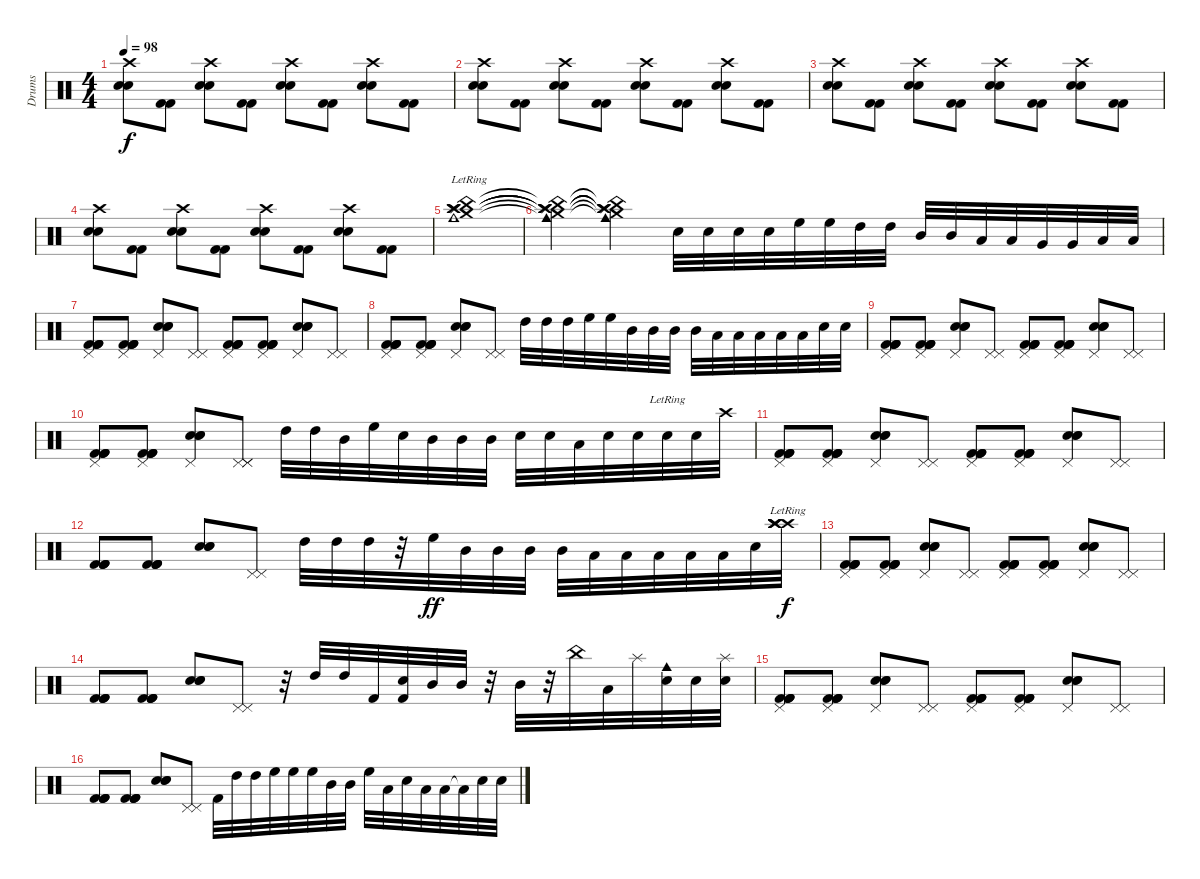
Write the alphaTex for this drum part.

\track ("Drums" "Drums") {instrument percussion}
\staff {score}
\articulation defaults
\ts (4 4)
\tempo 98
\clef neutral
\ks c
("Crash high (hit)" "Electric Snare (hit)" "Electric Snare (hit)").8{dy f} ("Kick (hit) 2" "Kick (hit) 2").8 ("Crash high (hit)" "Electric Snare (hit)" "Electric Snare (hit)").8 ("Kick (hit) 2" "Kick (hit) 2").8 ("Crash high (hit)" "Electric Snare (hit)" "Electric Snare (hit)").8 ("Kick (hit) 2" "Kick (hit) 2").8 ("Crash high (hit)" "Electric Snare (hit)" "Electric Snare (hit)").8 ("Kick (hit) 2" "Kick (hit) 2").8 |
("Crash high (hit)" "Electric Snare (hit)" "Electric Snare (hit)").8 ("Kick (hit) 2" "Kick (hit) 2").8 ("Crash high (hit)" "Electric Snare (hit)" "Electric Snare (hit)").8 ("Kick (hit) 2" "Kick (hit) 2").8 ("Crash high (hit)" "Electric Snare (hit)" "Electric Snare (hit)").8 ("Kick (hit) 2" "Kick (hit) 2").8 ("Crash high (hit)" "Electric Snare (hit)" "Electric Snare (hit)").8 ("Kick (hit) 2" "Kick (hit) 2").8 |
("Crash high (hit)" "Electric Snare (hit)" "Electric Snare (hit)").8 ("Kick (hit) 2" "Kick (hit) 2").8 ("Crash high (hit)" "Electric Snare (hit)" "Electric Snare (hit)").8 ("Kick (hit) 2" "Kick (hit) 2").8 ("Crash high (hit)" "Electric Snare (hit)" "Electric Snare (hit)").8 ("Kick (hit) 2" "Kick (hit) 2").8 ("Crash high (hit)" "Electric Snare (hit)" "Electric Snare (hit)").8 ("Kick (hit) 2" "Kick (hit) 2").8 |
("Crash high (hit)" "Electric Snare (hit)" "Electric Snare (hit)").8 ("Kick (hit) 2" "Kick (hit) 2").8 ("Crash high (hit)" "Electric Snare (hit)" "Electric Snare (hit)").8 ("Kick (hit) 2" "Kick (hit) 2").8 ("Crash high (hit)" "Electric Snare (hit)" "Electric Snare (hit)").8 ("Kick (hit) 2" "Kick (hit) 2").8 ("Crash high (hit)" "Electric Snare (hit)" "Electric Snare (hit)").8 ("Kick (hit) 2" "Kick (hit) 2").8 |
("Cowbell medium (hit)"{lr} "Crash high (hit)"{lr} "Crash high (hit)"{lr} "Crash medium (hit)"{lr} "China (hit)"{lr} "Splash (hit)"{lr}).1 |
("Cowbell medium (hit)"{t} "Crash high (hit)"{t} "Crash high (hit)"{t} "Crash medium (hit)"{t} "China (hit)"{t} "Splash (hit)"{t}).4 ("Cowbell medium (hit)"{t} "Crash high (hit)"{t} "Crash high (hit)"{t} "Crash medium (hit)"{t} "China (hit)"{t} "Splash (hit)"{t}).4 "Electric Snare (hit)".32 "Electric Snare (hit)".32 "Electric Snare (hit)".32 "Electric Snare (hit)".32 "High Floor Tom (hit)".32 "High Floor Tom (hit)".32 "High Tom (hit)".32 "High Tom (hit)".32 "Mid Tom (hit)".32 "Mid Tom (hit)".32 "Low Tom (hit)".32 "Low Tom (hit)".32 "Very Low Tom (hit)".32 "Very Low Tom (hit)".32 "Low Floor Tom (hit)".32 "Low Floor Tom (hit)".32 |
("Pedal Hi-Hat (hit)" "Kick (hit) 2" "Kick (hit) 2" "Kick (hit) 2" "Kick (hit) 2").8 ("Pedal Hi-Hat (hit)" "Kick (hit) 2" "Kick (hit) 2" "Kick (hit) 2" "Kick (hit) 2").8 ("Pedal Hi-Hat (hit)" "Electric Snare (hit)" "Electric Snare (hit)" "Electric Snare (hit)").8 ("Pedal Hi-Hat (hit)" "Pedal Hi-Hat (hit)").8 ("Pedal Hi-Hat (hit)" "Kick (hit) 2" "Kick (hit) 2" "Kick (hit) 2" "Kick (hit) 2").8 ("Pedal Hi-Hat (hit)" "Kick (hit) 2" "Kick (hit) 2" "Kick (hit) 2" "Kick (hit) 2").8 ("Pedal Hi-Hat (hit)" "Electric Snare (hit)" "Electric Snare (hit)" "Electric Snare (hit)").8 ("Pedal Hi-Hat (hit)" "Pedal Hi-Hat (hit)").8 |
("Pedal Hi-Hat (hit)" "Kick (hit) 2" "Kick (hit) 2" "Kick (hit) 2" "Kick (hit) 2").8 ("Pedal Hi-Hat (hit)" "Kick (hit) 2" "Kick (hit) 2" "Kick (hit) 2" "Kick (hit) 2").8 ("Pedal Hi-Hat (hit)" "Electric Snare (hit)" "Electric Snare (hit)" "Electric Snare (hit)").8 ("Pedal Hi-Hat (hit)" "Pedal Hi-Hat (hit)").8 "High Tom (hit)".32 "High Tom (hit)".32 "High Tom (hit)".32 "High Floor Tom (hit)".32 "High Floor Tom (hit)".32 "Mid Tom (hit)".32 "Mid Tom (hit)".32 "Mid Tom (hit)".32 "Mid Tom (hit)".32 "Low Tom (hit)".32 "Low Tom (hit)".32 "Low Tom (hit)".32 "Low Floor Tom (hit)".32 "Low Floor Tom (hit)".32 "Electric Snare (hit)".32 "Electric Snare (hit)".32 |
("Pedal Hi-Hat (hit)" "Kick (hit) 2" "Kick (hit) 2" "Kick (hit) 2" "Kick (hit) 2").8 ("Pedal Hi-Hat (hit)" "Kick (hit) 2" "Kick (hit) 2" "Kick (hit) 2" "Kick (hit) 2").8 ("Pedal Hi-Hat (hit)" "Electric Snare (hit)" "Electric Snare (hit)" "Electric Snare (hit)").8 ("Pedal Hi-Hat (hit)" "Pedal Hi-Hat (hit)").8 ("Pedal Hi-Hat (hit)" "Kick (hit) 2" "Kick (hit) 2" "Kick (hit) 2" "Kick (hit) 2").8 ("Pedal Hi-Hat (hit)" "Kick (hit) 2" "Kick (hit) 2" "Kick (hit) 2" "Kick (hit) 2").8 ("Pedal Hi-Hat (hit)" "Electric Snare (hit)" "Electric Snare (hit)" "Electric Snare (hit)").8 ("Pedal Hi-Hat (hit)" "Pedal Hi-Hat (hit)").8 |
("Pedal Hi-Hat (hit)" "Kick (hit) 2" "Kick (hit) 2" "Kick (hit) 2" "Kick (hit) 2").8 ("Pedal Hi-Hat (hit)" "Kick (hit) 2" "Kick (hit) 2" "Kick (hit) 2" "Kick (hit) 2").8 ("Pedal Hi-Hat (hit)" "Electric Snare (hit)" "Electric Snare (hit)" "Electric Snare (hit)").8 ("Pedal Hi-Hat (hit)" "Pedal Hi-Hat (hit)" "Pedal Hi-Hat (hit)").8 "High Tom (hit)".32 "High Tom (hit)".32 "Mid Tom (hit)".32 "High Floor Tom (hit)".32 "Snare (hit) 2".32 "Mid Tom (hit)".32 "Mid Tom (hit)".32 "Mid Tom (hit)".32 "Snare (hit) 2".32 "Snare (hit) 2".32 "Low Tom (hit)".32 "Snare (hit) 2".32 "Electric Snare (hit)".32 "Snare (hit) 2"{lr}.32 "Snare (hit) 2".32 "Crash high (hit)".32 |
("Pedal Hi-Hat (hit)" "Kick (hit) 2" "Kick (hit) 2" "Kick (hit) 2" "Kick (hit) 2").8 ("Pedal Hi-Hat (hit)" "Kick (hit) 2" "Kick (hit) 2" "Kick (hit) 2" "Kick (hit) 2").8 ("Pedal Hi-Hat (hit)" "Electric Snare (hit)" "Electric Snare (hit)" "Electric Snare (hit)").8 ("Pedal Hi-Hat (hit)" "Pedal Hi-Hat (hit)").8 ("Pedal Hi-Hat (hit)" "Kick (hit) 2" "Kick (hit) 2" "Kick (hit) 2" "Kick (hit) 2").8 ("Pedal Hi-Hat (hit)" "Kick (hit) 2" "Kick (hit) 2" "Kick (hit) 2" "Kick (hit) 2").8 ("Pedal Hi-Hat (hit)" "Electric Snare (hit)" "Electric Snare (hit)" "Electric Snare (hit)").8 ("Pedal Hi-Hat (hit)" "Pedal Hi-Hat (hit)").8 |
("Kick (hit) 2" "Kick (hit) 2" "Kick (hit) 2" "Kick (hit) 2").8 ("Kick (hit) 2" "Kick (hit) 2" "Kick (hit) 2" "Kick (hit) 2").8 ("Electric Snare (hit)" "Electric Snare (hit)" "Electric Snare (hit)").8 ("Pedal Hi-Hat (hit)" "Pedal Hi-Hat (hit)").8 "High Tom (hit)".32 "High Tom (hit)".32 "High Tom (hit)".32 r.32 "High Floor Tom (hit)".32{dy ff} "Mid Tom (hit)".32 "Mid Tom (hit)".32 "Mid Tom (hit)".32 "Mid Tom (hit)".32 "Low Tom (hit)".32 "Low Tom (hit)".32 "Low Tom (hit)".32 "Low Floor Tom (hit)".32 "Low Floor Tom (hit)".32 "Electric Snare (hit)".32 ("Crash high (hit)"{lr} "Crash high (hit)"{lr} "Crash high (hit)"{lr} "Crash high (hit)"{lr}).32{dy f} |
("Pedal Hi-Hat (hit)" "Kick (hit) 2" "Kick (hit) 2" "Kick (hit) 2" "Kick (hit) 2").8 ("Pedal Hi-Hat (hit)" "Kick (hit) 2" "Kick (hit) 2" "Kick (hit) 2" "Kick (hit) 2").8 ("Pedal Hi-Hat (hit)" "Electric Snare (hit)" "Electric Snare (hit)" "Electric Snare (hit)").8 ("Pedal Hi-Hat (hit)" "Pedal Hi-Hat (hit)").8 ("Pedal Hi-Hat (hit)" "Kick (hit) 2" "Kick (hit) 2" "Kick (hit) 2" "Kick (hit) 2").8 ("Pedal Hi-Hat (hit)" "Kick (hit) 2" "Kick (hit) 2" "Kick (hit) 2" "Kick (hit) 2").8 ("Pedal Hi-Hat (hit)" "Electric Snare (hit)" "Electric Snare (hit)" "Electric Snare (hit)").8 ("Pedal Hi-Hat (hit)" "Pedal Hi-Hat (hit)").8 |
("Kick (hit) 2" "Kick (hit) 2" "Kick (hit) 2" "Kick (hit) 2").8 ("Kick (hit) 2" "Kick (hit) 2" "Kick (hit) 2" "Kick (hit) 2").8 ("Electric Snare (hit)" "Electric Snare (hit)" "Electric Snare (hit)").8 ("Pedal Hi-Hat (hit)" "Pedal Hi-Hat (hit)").8 r.32 "High Tom (hit)".32 "High Tom (hit)".32 "Kick (hit) 2".32 ("Electric Snare (hit)" "Kick (hit) 2").32 "Mid Tom (hit)".32 "Mid Tom (hit)".32 r.32 "Mid Tom (hit)".32 r.32 "China (hit)".32 "Low Tom (hit)".32 "Splash (hit)".32 ("Electric Snare (hit)" "Cowbell medium (hit)").32 "Electric Snare (hit)".32 ("Splash (hit)" "Electric Snare (hit)").32 |
("Pedal Hi-Hat (hit)" "Kick (hit) 2" "Kick (hit) 2" "Kick (hit) 2" "Kick (hit) 2").8 ("Pedal Hi-Hat (hit)" "Kick (hit) 2" "Kick (hit) 2" "Kick (hit) 2" "Kick (hit) 2").8 ("Pedal Hi-Hat (hit)" "Electric Snare (hit)" "Electric Snare (hit)" "Electric Snare (hit)").8 ("Pedal Hi-Hat (hit)" "Pedal Hi-Hat (hit)").8 ("Pedal Hi-Hat (hit)" "Kick (hit) 2" "Kick (hit) 2" "Kick (hit) 2" "Kick (hit) 2").8 ("Pedal Hi-Hat (hit)" "Kick (hit) 2" "Kick (hit) 2" "Kick (hit) 2" "Kick (hit) 2").8 ("Pedal Hi-Hat (hit)" "Electric Snare (hit)" "Electric Snare (hit)" "Electric Snare (hit)").8 ("Pedal Hi-Hat (hit)" "Pedal Hi-Hat (hit)").8 |
("Kick (hit) 2" "Kick (hit) 2" "Kick (hit) 2" "Kick (hit) 2").8 ("Kick (hit) 2" "Kick (hit) 2" "Kick (hit) 2" "Kick (hit) 2").8 ("Electric Snare (hit)" "Electric Snare (hit)" "Electric Snare (hit)").8 ("Pedal Hi-Hat (hit)" "Pedal Hi-Hat (hit)").8 "Kick (hit) 2".32 "High Tom (hit)".32 "High Tom (hit)".32 "High Floor Tom (hit)".32 "High Floor Tom (hit)".32 "High Floor Tom (hit)".32 "Mid Tom (hit)".32 "Mid Tom (hit)".32 "High Floor Tom (hit)".32 "Low Floor Tom (hit)".32 "Snare (hit) 2".32 "Low Tom (hit)".32 "Low Floor Tom (hit)".32 "Low Floor Tom (hit)"{t}.32 "Electric Snare (hit)".32 "Electric Snare (hit)".32
